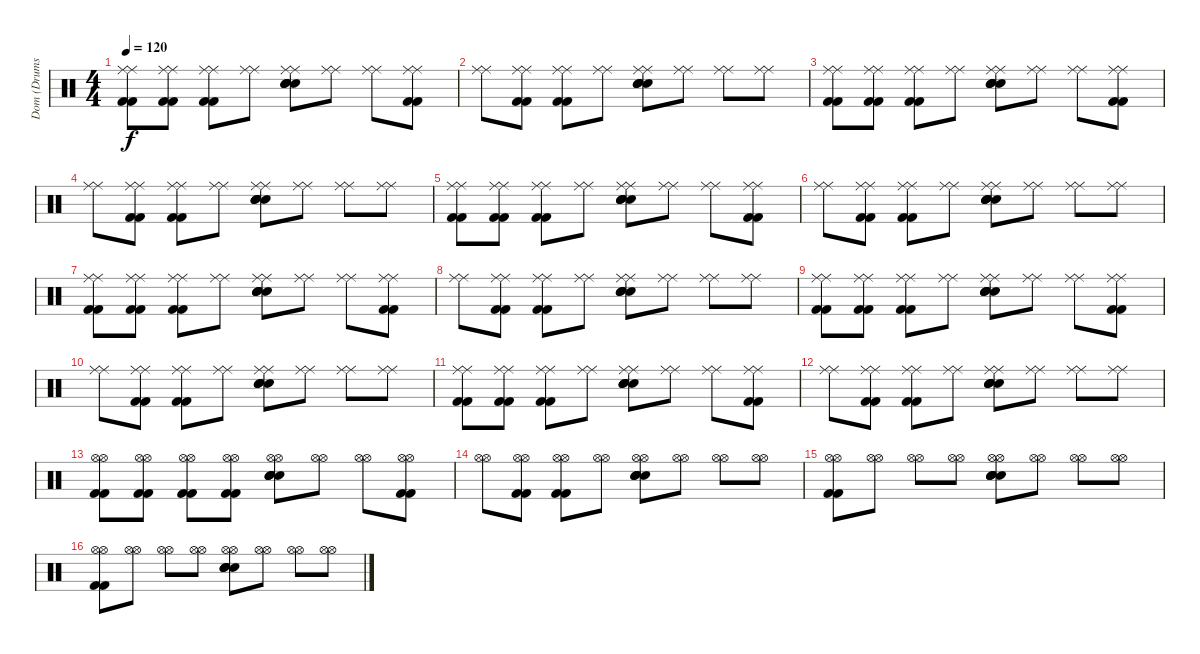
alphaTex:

\track ("Dom (Drums)" "Dom (Drums") {instrument percussion}
\staff {score}
\articulation defaults
\ts (4 4)
\tempo 120
\clef neutral
\ks c
("Kick (hit) 2" "Kick (hit) 2" "Ride (middle)" "Ride (middle)").8{dy f} ("Kick (hit) 2" "Kick (hit) 2" "Ride (middle)" "Ride (middle)").8 ("Kick (hit) 2" "Kick (hit) 2" "Ride (middle)" "Ride (middle)").8 ("Ride (middle)" "Ride (middle)").8 ("Electric Snare (hit)" "Electric Snare (hit)" "Snare (hit) 2" "Snare (hit) 2" "Ride (middle)" "Ride (middle)").8 ("Ride (middle)" "Ride (middle)").8 ("Ride (middle)" "Ride (middle)").8 ("Kick (hit) 2" "Kick (hit) 2" "Ride (middle)" "Ride (middle)").8 |
("Ride (middle)" "Ride (middle)").8 ("Kick (hit) 2" "Kick (hit) 2" "Ride (middle)" "Ride (middle)").8 ("Kick (hit) 2" "Kick (hit) 2" "Ride (middle)" "Ride (middle)").8 ("Ride (middle)" "Ride (middle)").8 ("Electric Snare (hit)" "Electric Snare (hit)" "Snare (hit) 2" "Snare (hit) 2" "Ride (middle)" "Ride (middle)").8 ("Ride (middle)" "Ride (middle)").8 ("Ride (middle)" "Ride (middle)").8 ("Ride (middle)" "Ride (middle)").8 |
("Kick (hit) 2" "Kick (hit) 2" "Ride (middle)" "Ride (middle)").8 ("Kick (hit) 2" "Kick (hit) 2" "Ride (middle)" "Ride (middle)").8 ("Kick (hit) 2" "Kick (hit) 2" "Ride (middle)" "Ride (middle)").8 ("Ride (middle)" "Ride (middle)").8 ("Electric Snare (hit)" "Electric Snare (hit)" "Snare (hit) 2" "Snare (hit) 2" "Ride (middle)" "Ride (middle)").8 ("Ride (middle)" "Ride (middle)").8 ("Ride (middle)" "Ride (middle)").8 ("Kick (hit) 2" "Kick (hit) 2" "Ride (middle)" "Ride (middle)").8 |
("Ride (middle)" "Ride (middle)").8 ("Kick (hit) 2" "Kick (hit) 2" "Ride (middle)" "Ride (middle)").8 ("Kick (hit) 2" "Kick (hit) 2" "Ride (middle)" "Ride (middle)").8 ("Ride (middle)" "Ride (middle)").8 ("Electric Snare (hit)" "Electric Snare (hit)" "Snare (hit) 2" "Snare (hit) 2" "Ride (middle)" "Ride (middle)").8 ("Ride (middle)" "Ride (middle)").8 ("Ride (middle)" "Ride (middle)").8 ("Ride (middle)" "Ride (middle)").8 |
("Kick (hit) 2" "Kick (hit) 2" "Ride (middle)" "Ride (middle)").8 ("Kick (hit) 2" "Kick (hit) 2" "Ride (middle)" "Ride (middle)").8 ("Kick (hit) 2" "Kick (hit) 2" "Ride (middle)" "Ride (middle)").8 ("Ride (middle)" "Ride (middle)").8 ("Electric Snare (hit)" "Electric Snare (hit)" "Snare (hit) 2" "Snare (hit) 2" "Ride (middle)" "Ride (middle)").8 ("Ride (middle)" "Ride (middle)").8 ("Ride (middle)" "Ride (middle)").8 ("Kick (hit) 2" "Kick (hit) 2" "Ride (middle)" "Ride (middle)").8 |
("Ride (middle)" "Ride (middle)").8 ("Kick (hit) 2" "Kick (hit) 2" "Ride (middle)" "Ride (middle)").8 ("Kick (hit) 2" "Kick (hit) 2" "Ride (middle)" "Ride (middle)").8 ("Ride (middle)" "Ride (middle)").8 ("Electric Snare (hit)" "Electric Snare (hit)" "Snare (hit) 2" "Snare (hit) 2" "Ride (middle)" "Ride (middle)").8 ("Ride (middle)" "Ride (middle)").8 ("Ride (middle)" "Ride (middle)").8 ("Ride (middle)" "Ride (middle)").8 |
("Kick (hit) 2" "Kick (hit) 2" "Ride (middle)" "Ride (middle)").8 ("Kick (hit) 2" "Kick (hit) 2" "Ride (middle)" "Ride (middle)").8 ("Kick (hit) 2" "Kick (hit) 2" "Ride (middle)" "Ride (middle)").8 ("Ride (middle)" "Ride (middle)").8 ("Electric Snare (hit)" "Electric Snare (hit)" "Snare (hit) 2" "Snare (hit) 2" "Ride (middle)" "Ride (middle)").8 ("Ride (middle)" "Ride (middle)").8 ("Ride (middle)" "Ride (middle)").8 ("Kick (hit) 2" "Kick (hit) 2" "Ride (middle)" "Ride (middle)").8 |
("Ride (middle)" "Ride (middle)").8 ("Kick (hit) 2" "Kick (hit) 2" "Ride (middle)" "Ride (middle)").8 ("Kick (hit) 2" "Kick (hit) 2" "Ride (middle)" "Ride (middle)").8 ("Ride (middle)" "Ride (middle)").8 ("Electric Snare (hit)" "Electric Snare (hit)" "Snare (hit) 2" "Snare (hit) 2" "Ride (middle)" "Ride (middle)").8 ("Ride (middle)" "Ride (middle)").8 ("Ride (middle)" "Ride (middle)").8 ("Ride (middle)" "Ride (middle)").8 |
("Kick (hit) 2" "Kick (hit) 2" "Ride (middle)" "Ride (middle)").8 ("Kick (hit) 2" "Kick (hit) 2" "Ride (middle)" "Ride (middle)").8 ("Kick (hit) 2" "Kick (hit) 2" "Ride (middle)" "Ride (middle)").8 ("Ride (middle)" "Ride (middle)").8 ("Electric Snare (hit)" "Electric Snare (hit)" "Snare (hit) 2" "Snare (hit) 2" "Ride (middle)" "Ride (middle)").8 ("Ride (middle)" "Ride (middle)").8 ("Ride (middle)" "Ride (middle)").8 ("Kick (hit) 2" "Kick (hit) 2" "Ride (middle)" "Ride (middle)").8 |
("Ride (middle)" "Ride (middle)").8 ("Kick (hit) 2" "Kick (hit) 2" "Ride (middle)" "Ride (middle)").8 ("Kick (hit) 2" "Kick (hit) 2" "Ride (middle)" "Ride (middle)").8 ("Ride (middle)" "Ride (middle)").8 ("Electric Snare (hit)" "Electric Snare (hit)" "Snare (hit) 2" "Snare (hit) 2" "Ride (middle)" "Ride (middle)").8 ("Ride (middle)" "Ride (middle)").8 ("Ride (middle)" "Ride (middle)").8 ("Ride (middle)" "Ride (middle)").8 |
("Kick (hit) 2" "Kick (hit) 2" "Ride (middle)" "Ride (middle)").8 ("Kick (hit) 2" "Kick (hit) 2" "Ride (middle)" "Ride (middle)").8 ("Kick (hit) 2" "Kick (hit) 2" "Ride (middle)" "Ride (middle)").8 ("Ride (middle)" "Ride (middle)").8 ("Electric Snare (hit)" "Electric Snare (hit)" "Snare (hit) 2" "Snare (hit) 2" "Ride (middle)" "Ride (middle)").8 ("Ride (middle)" "Ride (middle)").8 ("Ride (middle)" "Ride (middle)").8 ("Kick (hit) 2" "Kick (hit) 2" "Ride (middle)" "Ride (middle)").8 |
("Ride (middle)" "Ride (middle)").8 ("Kick (hit) 2" "Kick (hit) 2" "Ride (middle)" "Ride (middle)").8 ("Kick (hit) 2" "Kick (hit) 2" "Ride (middle)" "Ride (middle)").8 ("Ride (middle)" "Ride (middle)").8 ("Electric Snare (hit)" "Electric Snare (hit)" "Snare (hit) 2" "Snare (hit) 2" "Ride (middle)" "Ride (middle)").8 ("Ride (middle)" "Ride (middle)").8 ("Ride (middle)" "Ride (middle)").8 ("Ride (middle)" "Ride (middle)").8 |
("Kick (hit) 2" "Kick (hit) 2" "Hi-Hat (open)" "Hi-Hat (open)").8 ("Kick (hit) 2" "Kick (hit) 2" "Hi-Hat (open)" "Hi-Hat (open)").8 ("Kick (hit) 2" "Kick (hit) 2" "Hi-Hat (open)" "Hi-Hat (open)").8 ("Kick (hit) 2" "Kick (hit) 2" "Hi-Hat (open)" "Hi-Hat (open)").8 ("Electric Snare (hit)" "Electric Snare (hit)" "Snare (hit) 2" "Snare (hit) 2" "Hi-Hat (open)" "Hi-Hat (open)").8 ("Hi-Hat (open)" "Hi-Hat (open)").8 ("Hi-Hat (open)" "Hi-Hat (open)").8 ("Kick (hit) 2" "Kick (hit) 2" "Hi-Hat (open)" "Hi-Hat (open)").8 |
("Hi-Hat (open)" "Hi-Hat (open)").8 ("Kick (hit) 2" "Kick (hit) 2" "Hi-Hat (open)" "Hi-Hat (open)").8 ("Kick (hit) 2" "Kick (hit) 2" "Hi-Hat (open)" "Hi-Hat (open)").8 ("Hi-Hat (open)" "Hi-Hat (open)").8 ("Electric Snare (hit)" "Electric Snare (hit)" "Snare (hit) 2" "Snare (hit) 2" "Hi-Hat (open)" "Hi-Hat (open)").8 ("Hi-Hat (open)" "Hi-Hat (open)").8 ("Hi-Hat (open)" "Hi-Hat (open)").8 ("Hi-Hat (open)" "Hi-Hat (open)").8 |
("Kick (hit) 2" "Kick (hit) 2" "Hi-Hat (open)" "Hi-Hat (open)").8 ("Hi-Hat (open)" "Hi-Hat (open)").8 ("Hi-Hat (open)" "Hi-Hat (open)").8 ("Hi-Hat (open)" "Hi-Hat (open)").8 ("Electric Snare (hit)" "Electric Snare (hit)" "Snare (hit) 2" "Snare (hit) 2" "Hi-Hat (open)" "Hi-Hat (open)").8 ("Hi-Hat (open)" "Hi-Hat (open)").8 ("Hi-Hat (open)" "Hi-Hat (open)").8 ("Hi-Hat (open)" "Hi-Hat (open)").8 |
("Kick (hit) 2" "Kick (hit) 2" "Hi-Hat (open)" "Hi-Hat (open)").8 ("Hi-Hat (open)" "Hi-Hat (open)").8 ("Hi-Hat (open)" "Hi-Hat (open)").8 ("Hi-Hat (open)" "Hi-Hat (open)").8 ("Electric Snare (hit)" "Electric Snare (hit)" "Snare (hit) 2" "Snare (hit) 2" "Hi-Hat (open)" "Hi-Hat (open)").8 ("Hi-Hat (open)" "Hi-Hat (open)").8 ("Hi-Hat (open)" "Hi-Hat (open)").8 ("Hi-Hat (open)" "Hi-Hat (open)").8
